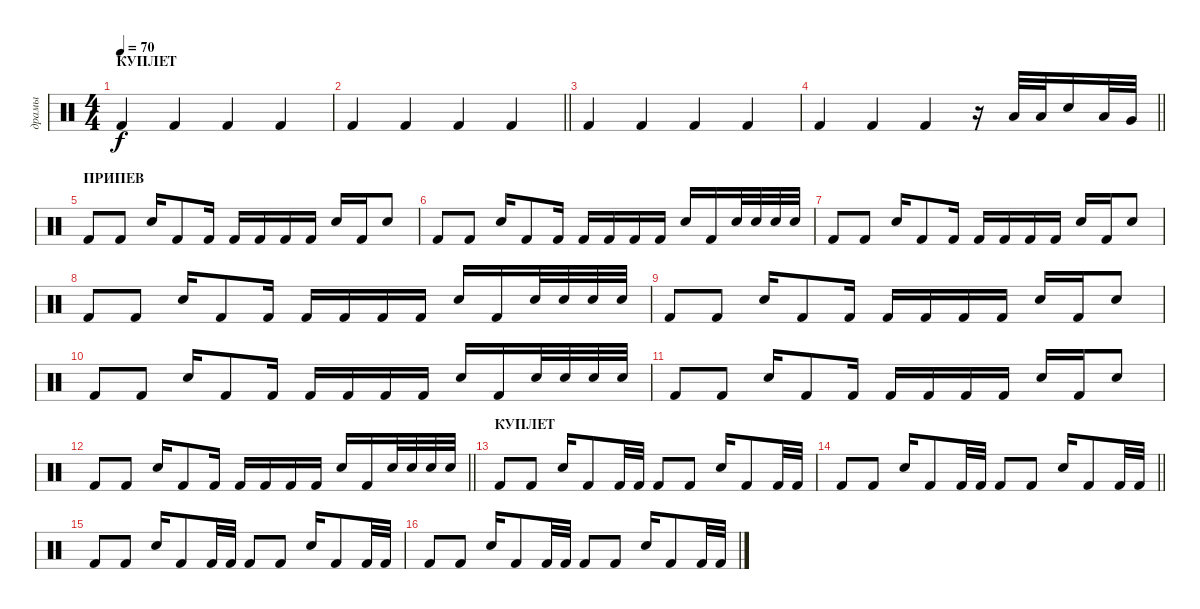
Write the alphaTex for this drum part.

\track ("драмы" "драмы") {instrument percussion}
\staff {score}
\articulation defaults
\ts (4 4)
\section ("" "КУПЛЕТ")
\tempo 70
\clef neutral
\ks c "Kick (hit) 2".4{dy f} "Kick (hit) 2".4 "Kick (hit) 2".4 "Kick (hit) 2".4
|
\barLineRight lightlight "Kick (hit) 2".4 "Kick (hit) 2".4 "Kick (hit) 2".4 "Kick (hit) 2".4
|
"Kick (hit) 2".4 "Kick (hit) 2".4 "Kick (hit) 2".4 "Kick (hit) 2".4 |
\barLineRight lightlight "Kick (hit) 2".4 "Kick (hit) 2".4 "Kick (hit) 2".4
r.16 "Low Tom (hit)".32 "Low Tom (hit)".32 "Electric Snare (hit)".16 "Low Tom (hit)".32 "Very Low Tom (hit)".32 |
\section ("" "ПРИПЕВ")
"Kick (hit) 2".8 "Kick (hit) 2".8 "Electric Snare (hit)".16 "Kick (hit) 2".8 "Kick (hit) 2".16 "Kick (hit) 2".16 "Kick (hit) 2".16 "Kick (hit) 2".16 "Kick (hit) 2".16 "Electric Snare (hit)".16 "Kick (hit) 2".16 "Electric Snare (hit)".8 |
"Kick (hit) 2".8 "Kick (hit) 2".8 "Electric Snare (hit)".16 "Kick (hit) 2".8 "Kick (hit) 2".16 "Kick (hit) 2".16 "Kick (hit) 2".16 "Kick (hit) 2".16 "Kick (hit) 2".16 "Electric Snare (hit)".16 "Kick (hit) 2".16 "Electric Snare (hit)".32 "Electric Snare (hit)".32 "Electric Snare (hit)".32 "Electric Snare (hit)".32 |
"Kick (hit) 2".8 "Kick (hit) 2".8 "Electric Snare (hit)".16 "Kick (hit) 2".8 "Kick (hit) 2".16 "Kick (hit) 2".16 "Kick (hit) 2".16 "Kick (hit) 2".16 "Kick (hit) 2".16 "Electric Snare (hit)".16 "Kick (hit) 2".16 "Electric Snare (hit)".8 |
"Kick (hit) 2".8 "Kick (hit) 2".8 "Electric Snare (hit)".16 "Kick (hit) 2".8 "Kick (hit) 2".16 "Kick (hit) 2".16 "Kick (hit) 2".16 "Kick (hit) 2".16 "Kick (hit) 2".16 "Electric Snare (hit)".16 "Kick (hit) 2".16 "Electric Snare (hit)".32 "Electric Snare (hit)".32 "Electric Snare (hit)".32 "Electric Snare (hit)".32 |
"Kick (hit) 2".8 "Kick (hit) 2".8 "Electric Snare (hit)".16 "Kick (hit) 2".8 "Kick (hit) 2".16 "Kick (hit) 2".16 "Kick (hit) 2".16 "Kick (hit) 2".16 "Kick (hit) 2".16 "Electric Snare (hit)".16 "Kick (hit) 2".16 "Electric Snare (hit)".8 |
"Kick (hit) 2".8 "Kick (hit) 2".8 "Electric Snare (hit)".16 "Kick (hit) 2".8 "Kick (hit) 2".16 "Kick (hit) 2".16 "Kick (hit) 2".16 "Kick (hit) 2".16 "Kick (hit) 2".16 "Electric Snare (hit)".16 "Kick (hit) 2".16 "Electric Snare (hit)".32 "Electric Snare (hit)".32 "Electric Snare (hit)".32 "Electric Snare (hit)".32 |
"Kick (hit) 2".8 "Kick (hit) 2".8 "Electric Snare (hit)".16 "Kick (hit) 2".8 "Kick (hit) 2".16 "Kick (hit) 2".16 "Kick (hit) 2".16 "Kick (hit) 2".16 "Kick (hit) 2".16 "Electric Snare (hit)".16 "Kick (hit) 2".16 "Electric Snare (hit)".8 |
\barLineRight lightlight "Kick (hit) 2".8 "Kick (hit) 2".8 "Electric Snare (hit)".16 "Kick (hit) 2".8 "Kick (hit) 2".16 "Kick (hit) 2".16 "Kick (hit) 2".16 "Kick (hit) 2".16 "Kick (hit) 2".16 "Electric Snare (hit)".16 "Kick (hit) 2".16 "Electric Snare (hit)".32 "Electric Snare (hit)".32 "Electric Snare (hit)".32 "Electric Snare (hit)".32
|
\section ("" "КУПЛЕТ")
"Kick (hit) 2".8 "Kick (hit) 2".8 "Electric Snare (hit)".16 "Kick (hit) 2".8 "Kick (hit) 2".32 "Kick (hit) 2".32 "Kick (hit) 2".8 "Kick (hit) 2".8 "Electric Snare (hit)".16 "Kick (hit) 2".8 "Kick (hit) 2".32 "Kick (hit) 2".32 |
\barLineRight lightlight "Kick (hit) 2".8 "Kick (hit) 2".8 "Electric Snare (hit)".16 "Kick (hit) 2".8 "Kick (hit) 2".32 "Kick (hit) 2".32 "Kick (hit) 2".8 "Kick (hit) 2".8 "Electric Snare (hit)".16 "Kick (hit) 2".8 "Kick (hit) 2".32 "Kick (hit) 2".32
|
"Kick (hit) 2".8 "Kick (hit) 2".8 "Electric Snare (hit)".16 "Kick (hit) 2".8 "Kick (hit) 2".32 "Kick (hit) 2".32 "Kick (hit) 2".8 "Kick (hit) 2".8 "Electric Snare (hit)".16 "Kick (hit) 2".8 "Kick (hit) 2".32 "Kick (hit) 2".32 |
"Kick (hit) 2".8 "Kick (hit) 2".8 "Electric Snare (hit)".16 "Kick (hit) 2".8 "Kick (hit) 2".32 "Kick (hit) 2".32 "Kick (hit) 2".8 "Kick (hit) 2".8 "Electric Snare (hit)".16 "Kick (hit) 2".8 "Kick (hit) 2".32 "Kick (hit) 2".32
